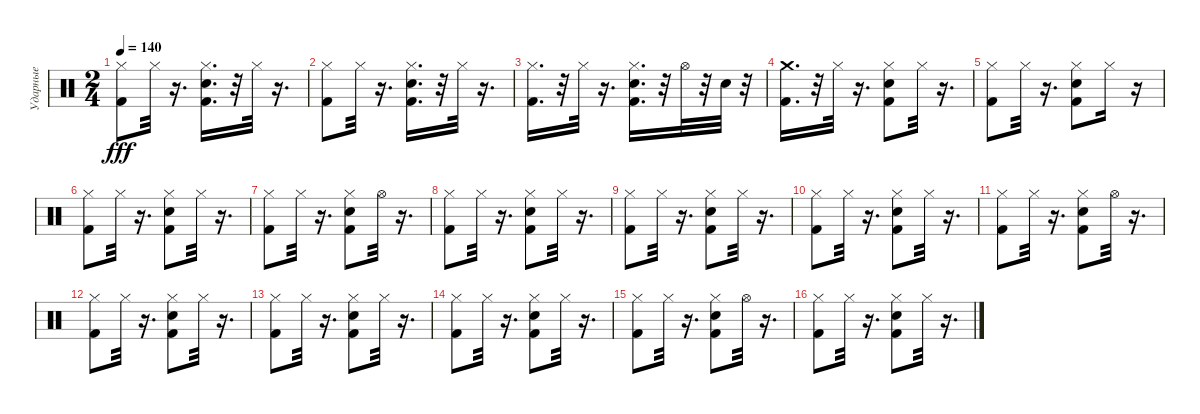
\track ("Ударные" "Ударные") {instrument percussion}
\staff {score}
\articulation defaults
\ts (2 4)
\tempo 140
\clef neutral
\ks c
("Kick (hit) 2" "Hi-Hat (closed)").8{dy fff} "Hi-Hat (closed)".32 r.16{d} ("Kick (hit) 2" "Hi-Hat (closed)" "Snare (hit) 2").16{d} r.32 "Hi-Hat (closed)".32 r.16{d} |
("Kick (hit) 2" "Hi-Hat (closed)").8 "Hi-Hat (closed)".32 r.16{d} ("Snare (hit) 2" "Kick (hit) 2" "Hi-Hat (closed)").16{d} r.32 "Hi-Hat (closed)".32 r.16{d} |
("Kick (hit) 2" "Hi-Hat (closed)").16{d} r.32 "Hi-Hat (closed)".32 r.16{d} ("Snare (hit) 2" "Kick (hit) 2" "Hi-Hat (closed)").16{d} r.32 "Hi-Hat (open)".32 r.32 "Snare (hit) 2".32 r.32 |
("Kick (hit) 2" "Crash medium (hit)").16{d} r.32 "Hi-Hat (closed)".32 r.16{d} ("Snare (hit) 2" "Hi-Hat (closed)" "Kick (hit) 2").8 "Hi-Hat (closed)".32 r.16{d} |
("Kick (hit) 2" "Hi-Hat (closed)").8 "Hi-Hat (closed)".32 r.16{d} ("Snare (hit) 2" "Kick (hit) 2" "Hi-Hat (closed)").8 "Hi-Hat (closed)".16 r.16 |
("Kick (hit) 2" "Hi-Hat (closed)").8 "Hi-Hat (closed)".32 r.16{d} ("Snare (hit) 2" "Kick (hit) 2" "Hi-Hat (closed)").8 "Hi-Hat (closed)".32 r.16{d} |
("Kick (hit) 2" "Hi-Hat (closed)").8 "Hi-Hat (closed)".32 r.16{d} ("Kick (hit) 2" "Snare (hit) 2" "Hi-Hat (closed)").8 "Hi-Hat (open)".32 r.16{d} |
("Kick (hit) 2" "Hi-Hat (closed)").8 "Hi-Hat (closed)".32 r.16{d} ("Snare (hit) 2" "Kick (hit) 2" "Hi-Hat (closed)").8 "Hi-Hat (closed)".32 r.16{d} |
("Kick (hit) 2" "Hi-Hat (closed)").8 "Hi-Hat (closed)".32 r.16{d} ("Snare (hit) 2" "Kick (hit) 2" "Hi-Hat (closed)").8 "Hi-Hat (closed)".32 r.16{d} |
("Kick (hit) 2" "Hi-Hat (closed)").8 "Hi-Hat (closed)".32 r.16{d} ("Snare (hit) 2" "Kick (hit) 2" "Hi-Hat (closed)").8 "Hi-Hat (closed)".32 r.16{d} |
("Kick (hit) 2" "Hi-Hat (closed)").8 "Hi-Hat (closed)".32 r.16{d} ("Snare (hit) 2" "Kick (hit) 2" "Hi-Hat (closed)").8 "Hi-Hat (open)".32 r.16{d} |
("Kick (hit) 2" "Hi-Hat (closed)").8 "Hi-Hat (closed)".32 r.16{d} ("Snare (hit) 2" "Kick (hit) 2" "Hi-Hat (closed)").8 "Hi-Hat (closed)".32 r.16{d} |
("Kick (hit) 2" "Hi-Hat (closed)").8 "Hi-Hat (closed)".32 r.16{d} ("Snare (hit) 2" "Kick (hit) 2" "Hi-Hat (closed)").8 "Hi-Hat (closed)".32 r.16{d} |
("Kick (hit) 2" "Hi-Hat (closed)").8 "Hi-Hat (closed)".32 r.16{d} ("Snare (hit) 2" "Kick (hit) 2" "Hi-Hat (closed)").8 "Hi-Hat (closed)".32 r.16{d} |
("Kick (hit) 2" "Hi-Hat (closed)").8 "Hi-Hat (closed)".32 r.16{d} ("Snare (hit) 2" "Kick (hit) 2" "Hi-Hat (closed)").8 "Hi-Hat (open)".32 r.16{d} |
("Kick (hit) 2" "Hi-Hat (closed)").8 "Hi-Hat (closed)".32 r.16{d} ("Hi-Hat (closed)" "Snare (hit) 2" "Kick (hit) 2").8 "Hi-Hat (closed)".32 r.16{d}
